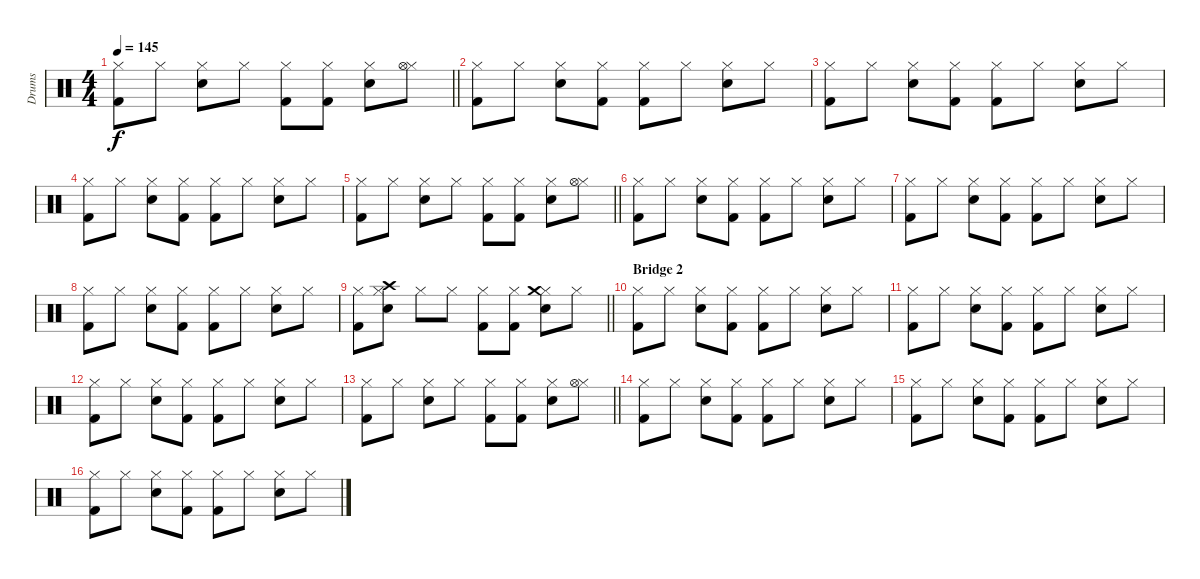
\track ("Drums" "Drums") {instrument percussion}
\staff {score}
\articulation defaults
\ts (4 4)
\tempo 145
\clef neutral
\barLineRight lightlight
\ks c
("Kick (hit) 2" "Hi-Hat (closed)").8{dy f} "Hi-Hat (closed)".8 ("Snare (hit) 2" "Hi-Hat (closed)").8 "Hi-Hat (closed)".8 ("Kick (hit) 2" "Hi-Hat (closed)").8 ("Kick (hit) 2" "Hi-Hat (closed)").8 ("Snare (hit) 2" "Hi-Hat (closed)").8 ("Hi-Hat (closed)" "Hi-Hat (open)").8 |
("Kick (hit) 2" "Hi-Hat (closed)").8 "Hi-Hat (closed)".8 ("Snare (hit) 2" "Hi-Hat (closed)").8 ("Kick (hit) 2" "Hi-Hat (closed)").8 ("Kick (hit) 2" "Hi-Hat (closed)").8 "Hi-Hat (closed)".8 ("Snare (hit) 2" "Hi-Hat (closed)").8 "Hi-Hat (closed)".8 |
("Kick (hit) 2" "Hi-Hat (closed)").8 "Hi-Hat (closed)".8 ("Snare (hit) 2" "Hi-Hat (closed)").8 ("Kick (hit) 2" "Hi-Hat (closed)").8 ("Kick (hit) 2" "Hi-Hat (closed)").8 "Hi-Hat (closed)".8 ("Snare (hit) 2" "Hi-Hat (closed)").8 "Hi-Hat (closed)".8 |
("Kick (hit) 2" "Hi-Hat (closed)").8 "Hi-Hat (closed)".8 ("Snare (hit) 2" "Hi-Hat (closed)").8 ("Kick (hit) 2" "Hi-Hat (closed)").8 ("Kick (hit) 2" "Hi-Hat (closed)").8 "Hi-Hat (closed)".8 ("Snare (hit) 2" "Hi-Hat (closed)").8 "Hi-Hat (closed)".8 |
\barLineRight lightlight
("Kick (hit) 2" "Hi-Hat (closed)").8 "Hi-Hat (closed)".8 ("Snare (hit) 2" "Hi-Hat (closed)").8 "Hi-Hat (closed)".8 ("Kick (hit) 2" "Hi-Hat (closed)").8 ("Kick (hit) 2" "Hi-Hat (closed)").8 ("Snare (hit) 2" "Hi-Hat (closed)").8 ("Hi-Hat (closed)" "Hi-Hat (open)").8 |
("Kick (hit) 2" "Hi-Hat (closed)").8 "Hi-Hat (closed)".8 ("Snare (hit) 2" "Hi-Hat (closed)").8 ("Kick (hit) 2" "Hi-Hat (closed)").8 ("Kick (hit) 2" "Hi-Hat (closed)").8 "Hi-Hat (closed)".8 ("Snare (hit) 2" "Hi-Hat (closed)").8 "Hi-Hat (closed)".8 |
("Kick (hit) 2" "Hi-Hat (closed)").8 "Hi-Hat (closed)".8 ("Snare (hit) 2" "Hi-Hat (closed)").8 ("Kick (hit) 2" "Hi-Hat (closed)").8 ("Kick (hit) 2" "Hi-Hat (closed)").8 "Hi-Hat (closed)".8 ("Snare (hit) 2" "Hi-Hat (closed)").8 "Hi-Hat (closed)".8 |
("Kick (hit) 2" "Hi-Hat (closed)").8 "Hi-Hat (closed)".8 ("Snare (hit) 2" "Hi-Hat (closed)").8 ("Kick (hit) 2" "Hi-Hat (closed)").8 ("Kick (hit) 2" "Hi-Hat (closed)").8 "Hi-Hat (closed)".8 ("Snare (hit) 2" "Hi-Hat (closed)").8 "Hi-Hat (closed)".8 |
\barLineRight lightlight
("Kick (hit) 2" "Hi-Hat (closed)").8 ("Snare (hit) 2" "Hi-Hat (closed)" "Crash high (hit)").8 "Hi-Hat (closed)".8 "Hi-Hat (closed)".8 ("Kick (hit) 2" "Hi-Hat (closed)").8 ("Kick (hit) 2" "Hi-Hat (closed)").8 ("Snare (hit) 2" "Hi-Hat (closed)" "Crash medium (hit)").8 "Hi-Hat (closed)".8 |
\section ("" "Bridge 2")
("Kick (hit) 2" "Hi-Hat (closed)").8 "Hi-Hat (closed)".8 ("Snare (hit) 2" "Hi-Hat (closed)").8 ("Kick (hit) 2" "Hi-Hat (closed)").8 ("Kick (hit) 2" "Hi-Hat (closed)").8 "Hi-Hat (closed)".8 ("Snare (hit) 2" "Hi-Hat (closed)").8 "Hi-Hat (closed)".8 |
("Kick (hit) 2" "Hi-Hat (closed)").8 "Hi-Hat (closed)".8 ("Snare (hit) 2" "Hi-Hat (closed)").8 ("Kick (hit) 2" "Hi-Hat (closed)").8 ("Kick (hit) 2" "Hi-Hat (closed)").8 "Hi-Hat (closed)".8 ("Snare (hit) 2" "Hi-Hat (closed)").8 "Hi-Hat (closed)".8 |
("Kick (hit) 2" "Hi-Hat (closed)").8 "Hi-Hat (closed)".8 ("Snare (hit) 2" "Hi-Hat (closed)").8 ("Kick (hit) 2" "Hi-Hat (closed)").8 ("Kick (hit) 2" "Hi-Hat (closed)").8 "Hi-Hat (closed)".8 ("Snare (hit) 2" "Hi-Hat (closed)").8 "Hi-Hat (closed)".8 |
\barLineRight lightlight
("Kick (hit) 2" "Hi-Hat (closed)").8 "Hi-Hat (closed)".8 ("Snare (hit) 2" "Hi-Hat (closed)").8 "Hi-Hat (closed)".8 ("Kick (hit) 2" "Hi-Hat (closed)").8 ("Kick (hit) 2" "Hi-Hat (closed)").8 ("Snare (hit) 2" "Hi-Hat (closed)").8 ("Hi-Hat (closed)" "Hi-Hat (open)").8 |
("Kick (hit) 2" "Hi-Hat (closed)").8 "Hi-Hat (closed)".8 ("Snare (hit) 2" "Hi-Hat (closed)").8 ("Kick (hit) 2" "Hi-Hat (closed)").8 ("Kick (hit) 2" "Hi-Hat (closed)").8 "Hi-Hat (closed)".8 ("Snare (hit) 2" "Hi-Hat (closed)").8 "Hi-Hat (closed)".8 |
("Kick (hit) 2" "Hi-Hat (closed)").8 "Hi-Hat (closed)".8 ("Snare (hit) 2" "Hi-Hat (closed)").8 ("Kick (hit) 2" "Hi-Hat (closed)").8 ("Kick (hit) 2" "Hi-Hat (closed)").8 "Hi-Hat (closed)".8 ("Snare (hit) 2" "Hi-Hat (closed)").8 "Hi-Hat (closed)".8 |
("Kick (hit) 2" "Hi-Hat (closed)").8 "Hi-Hat (closed)".8 ("Snare (hit) 2" "Hi-Hat (closed)").8 ("Kick (hit) 2" "Hi-Hat (closed)").8 ("Kick (hit) 2" "Hi-Hat (closed)").8 "Hi-Hat (closed)".8 ("Snare (hit) 2" "Hi-Hat (closed)").8 "Hi-Hat (closed)".8
